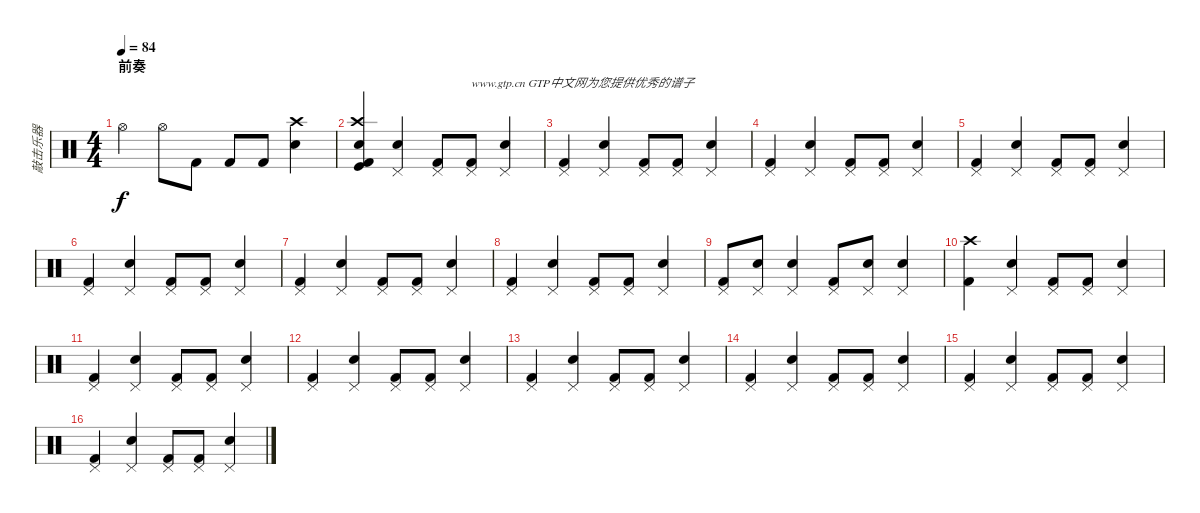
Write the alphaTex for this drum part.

\track ("敲击乐器" "敲击乐器") {instrument percussion}
\staff {score}
\articulation defaults
\ts (4 4)
\section ("" "前奏")
\tempo 84
\clef neutral
\ks c "Hi-Hat (open)".4{dy f} "Hi-Hat (open)".8 "Kick (hit) 2".8 "Kick (hit) 2".8 "Kick (hit) 2".8
("Crash high (hit)" "Snare (hit) 2").4 |
("Kick (hit) 2" "Crash high (hit)" "Kick (hit)" "Metronome (bell)").4 ("Snare (hit) 2" "Pedal Hi-Hat (hit)").4 ("Kick (hit) 2" "Pedal Hi-Hat (hit)").8 ("Kick (hit) 2" "Pedal Hi-Hat (hit)").8{txt "www.gtp.cn GTP中文网为您提供优秀的谱子"} ("Snare (hit) 2" "Pedal Hi-Hat (hit)").4 |
("Kick (hit) 2" "Pedal Hi-Hat (hit)").4 ("Snare (hit) 2" "Pedal Hi-Hat (hit)").4 ("Kick (hit) 2" "Pedal Hi-Hat (hit)").8 ("Kick (hit) 2" "Pedal Hi-Hat (hit)").8 ("Snare (hit) 2" "Pedal Hi-Hat (hit)").4 |
("Kick (hit) 2" "Pedal Hi-Hat (hit)").4 ("Snare (hit) 2" "Pedal Hi-Hat (hit)").4 ("Kick (hit) 2" "Pedal Hi-Hat (hit)").8 ("Kick (hit) 2" "Pedal Hi-Hat (hit)").8 ("Snare (hit) 2" "Pedal Hi-Hat (hit)").4 |
("Kick (hit) 2" "Pedal Hi-Hat (hit)").4{txt " "} ("Snare (hit) 2" "Pedal Hi-Hat (hit)").4 ("Kick (hit) 2" "Pedal Hi-Hat (hit)").8 ("Kick (hit) 2" "Pedal Hi-Hat (hit)").8 ("Snare (hit) 2" "Pedal Hi-Hat (hit)").4 |
("Kick (hit) 2" "Pedal Hi-Hat (hit)").4 ("Snare (hit) 2" "Pedal Hi-Hat (hit)").4 ("Kick (hit) 2" "Pedal Hi-Hat (hit)").8 ("Kick (hit) 2" "Pedal Hi-Hat (hit)").8 ("Snare (hit) 2" "Pedal Hi-Hat (hit)").4 |
("Kick (hit) 2" "Pedal Hi-Hat (hit)").4 ("Snare (hit) 2" "Pedal Hi-Hat (hit)").4 ("Kick (hit) 2" "Pedal Hi-Hat (hit)").8 ("Kick (hit) 2" "Pedal Hi-Hat (hit)").8 ("Snare (hit) 2" "Pedal Hi-Hat (hit)").4 |
("Kick (hit) 2" "Pedal Hi-Hat (hit)").4 ("Snare (hit) 2" "Pedal Hi-Hat (hit)").4 ("Kick (hit) 2" "Pedal Hi-Hat (hit)").8 ("Kick (hit) 2" "Pedal Hi-Hat (hit)").8 ("Snare (hit) 2" "Pedal Hi-Hat (hit)").4 |
("Kick (hit) 2" "Pedal Hi-Hat (hit)").8 ("Snare (hit) 2" "Pedal Hi-Hat (hit)").8 ("Snare (hit) 2" "Pedal Hi-Hat (hit)").4 ("Kick (hit) 2" "Pedal Hi-Hat (hit)").8 ("Snare (hit) 2" "Pedal Hi-Hat (hit)").8 ("Snare (hit) 2" "Pedal Hi-Hat (hit)").4 |
("Kick (hit) 2" "Crash high (hit)").4 ("Snare (hit) 2" "Pedal Hi-Hat (hit)").4 ("Kick (hit) 2" "Pedal Hi-Hat (hit)").8 ("Kick (hit) 2" "Pedal Hi-Hat (hit)").8 ("Snare (hit) 2" "Pedal Hi-Hat (hit)").4 |
("Kick (hit) 2" "Pedal Hi-Hat (hit)").4 ("Snare (hit) 2" "Pedal Hi-Hat (hit)").4 ("Kick (hit) 2" "Pedal Hi-Hat (hit)").8 ("Kick (hit) 2" "Pedal Hi-Hat (hit)").8 ("Snare (hit) 2" "Pedal Hi-Hat (hit)").4 |
("Kick (hit) 2" "Pedal Hi-Hat (hit)").4 ("Snare (hit) 2" "Pedal Hi-Hat (hit)").4 ("Kick (hit) 2" "Pedal Hi-Hat (hit)").8 ("Kick (hit) 2" "Pedal Hi-Hat (hit)").8 ("Snare (hit) 2" "Pedal Hi-Hat (hit)").4 |
("Kick (hit) 2" "Pedal Hi-Hat (hit)").4 ("Snare (hit) 2" "Pedal Hi-Hat (hit)").4 ("Kick (hit) 2" "Pedal Hi-Hat (hit)").8 ("Kick (hit) 2" "Pedal Hi-Hat (hit)").8 ("Snare (hit) 2" "Pedal Hi-Hat (hit)").4 |
("Kick (hit) 2" "Pedal Hi-Hat (hit)").4 ("Snare (hit) 2" "Pedal Hi-Hat (hit)").4 ("Kick (hit) 2" "Pedal Hi-Hat (hit)").8 ("Kick (hit) 2" "Pedal Hi-Hat (hit)").8 ("Snare (hit) 2" "Pedal Hi-Hat (hit)").4 |
("Kick (hit) 2" "Pedal Hi-Hat (hit)").4 ("Snare (hit) 2" "Pedal Hi-Hat (hit)").4 ("Kick (hit) 2" "Pedal Hi-Hat (hit)").8 ("Kick (hit) 2" "Pedal Hi-Hat (hit)").8 ("Snare (hit) 2" "Pedal Hi-Hat (hit)").4 |
("Kick (hit) 2" "Pedal Hi-Hat (hit)").4 ("Snare (hit) 2" "Pedal Hi-Hat (hit)").4 ("Kick (hit) 2" "Pedal Hi-Hat (hit)").8 ("Kick (hit) 2" "Pedal Hi-Hat (hit)").8 ("Snare (hit) 2" "Pedal Hi-Hat (hit)").4
